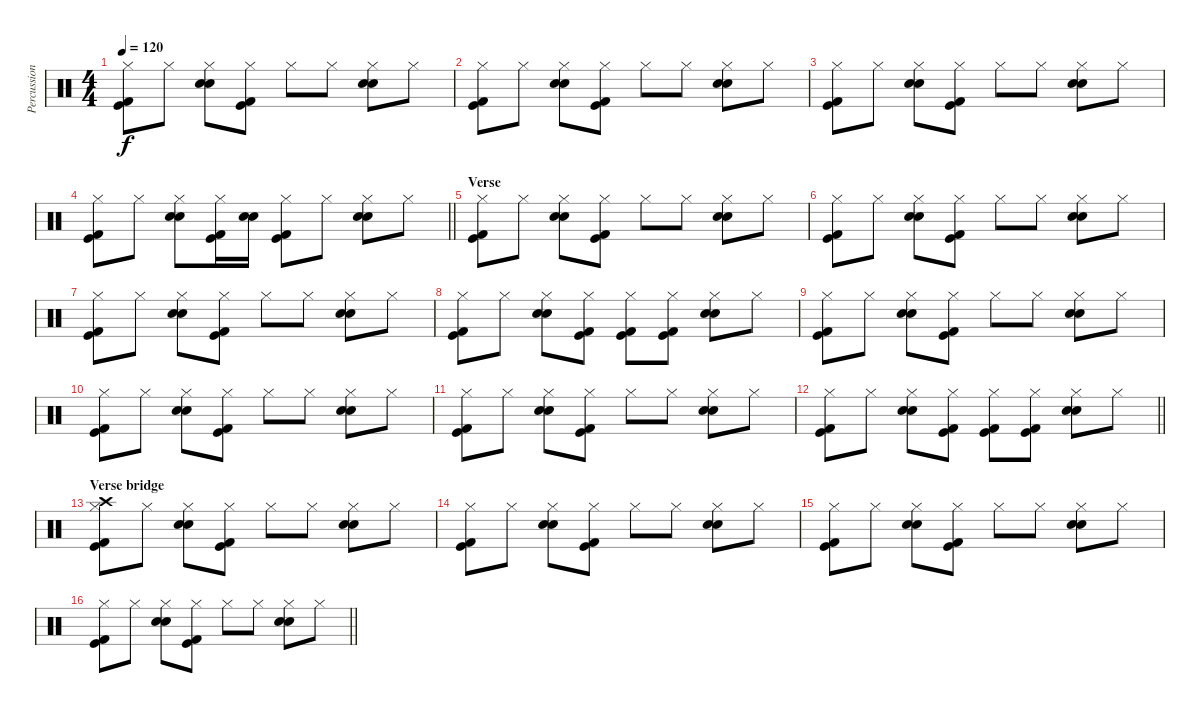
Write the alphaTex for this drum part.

\track ("Percussions" "Percussion") {instrument percussion}
\staff {score}
\articulation defaults
\ts (4 4)
\tempo 120
\clef neutral
\ks c
("Hi-Hat (closed)" "Kick (hit)" "Kick (hit) 2").8{dy f} "Hi-Hat (closed)".8 ("Hi-Hat (closed)" "Electric Snare (hit)" "Electric Snare (hit)").8 ("Hi-Hat (closed)" "Kick (hit)" "Kick (hit) 2").8 "Hi-Hat (closed)".8 "Hi-Hat (closed)".8 ("Hi-Hat (closed)" "Electric Snare (hit)" "Electric Snare (hit)").8 "Hi-Hat (closed)".8 |
("Hi-Hat (closed)" "Kick (hit)" "Kick (hit) 2").8 "Hi-Hat (closed)".8 ("Hi-Hat (closed)" "Electric Snare (hit)" "Electric Snare (hit)").8 ("Hi-Hat (closed)" "Kick (hit)" "Kick (hit) 2").8 "Hi-Hat (closed)".8 "Hi-Hat (closed)".8 ("Hi-Hat (closed)" "Electric Snare (hit)" "Electric Snare (hit)").8 "Hi-Hat (closed)".8 |
("Hi-Hat (closed)" "Kick (hit)" "Kick (hit) 2").8 "Hi-Hat (closed)".8 ("Hi-Hat (closed)" "Electric Snare (hit)" "Electric Snare (hit)").8 ("Hi-Hat (closed)" "Kick (hit)" "Kick (hit) 2").8 "Hi-Hat (closed)".8 "Hi-Hat (closed)".8 ("Hi-Hat (closed)" "Electric Snare (hit)" "Electric Snare (hit)").8 "Hi-Hat (closed)".8 |
\barLineRight lightlight
("Hi-Hat (closed)" "Kick (hit)" "Kick (hit) 2").8 "Hi-Hat (closed)".8 ("Hi-Hat (closed)" "Electric Snare (hit)" "Electric Snare (hit)").8 ("Hi-Hat (closed)" "Kick (hit)" "Kick (hit) 2").16 ("Electric Snare (hit)" "Electric Snare (hit)").16 ("Hi-Hat (closed)" "Kick (hit)" "Kick (hit) 2").8 "Hi-Hat (closed)".8 ("Hi-Hat (closed)" "Electric Snare (hit)" "Electric Snare (hit)").8 "Hi-Hat (closed)".8 |
\section ("" "Verse")
("Hi-Hat (closed)" "Kick (hit)" "Kick (hit) 2").8 "Hi-Hat (closed)".8 ("Hi-Hat (closed)" "Electric Snare (hit)" "Electric Snare (hit)").8 ("Hi-Hat (closed)" "Kick (hit)" "Kick (hit) 2").8 "Hi-Hat (closed)".8 "Hi-Hat (closed)".8 ("Hi-Hat (closed)" "Electric Snare (hit)" "Electric Snare (hit)").8 "Hi-Hat (closed)".8 |
("Hi-Hat (closed)" "Kick (hit)" "Kick (hit) 2").8 "Hi-Hat (closed)".8 ("Hi-Hat (closed)" "Electric Snare (hit)" "Electric Snare (hit)").8 ("Hi-Hat (closed)" "Kick (hit)" "Kick (hit) 2").8 "Hi-Hat (closed)".8 "Hi-Hat (closed)".8 ("Hi-Hat (closed)" "Electric Snare (hit)" "Electric Snare (hit)").8 "Hi-Hat (closed)".8 |
("Hi-Hat (closed)" "Kick (hit)" "Kick (hit) 2").8 "Hi-Hat (closed)".8 ("Hi-Hat (closed)" "Electric Snare (hit)" "Electric Snare (hit)").8 ("Hi-Hat (closed)" "Kick (hit)" "Kick (hit) 2").8 "Hi-Hat (closed)".8 "Hi-Hat (closed)".8 ("Hi-Hat (closed)" "Electric Snare (hit)" "Electric Snare (hit)").8 "Hi-Hat (closed)".8 |
("Hi-Hat (closed)" "Kick (hit)" "Kick (hit) 2").8 "Hi-Hat (closed)".8 ("Hi-Hat (closed)" "Electric Snare (hit)" "Electric Snare (hit)").8 ("Hi-Hat (closed)" "Kick (hit)" "Kick (hit) 2").8 ("Hi-Hat (closed)" "Kick (hit)" "Kick (hit) 2").8 ("Hi-Hat (closed)" "Kick (hit)" "Kick (hit) 2").8 ("Hi-Hat (closed)" "Electric Snare (hit)" "Electric Snare (hit)").8 "Hi-Hat (closed)".8 |
("Hi-Hat (closed)" "Kick (hit)" "Kick (hit) 2").8 "Hi-Hat (closed)".8 ("Hi-Hat (closed)" "Electric Snare (hit)" "Electric Snare (hit)").8 ("Hi-Hat (closed)" "Kick (hit)" "Kick (hit) 2").8 "Hi-Hat (closed)".8 "Hi-Hat (closed)".8 ("Hi-Hat (closed)" "Electric Snare (hit)" "Electric Snare (hit)").8 "Hi-Hat (closed)".8 |
("Hi-Hat (closed)" "Kick (hit)" "Kick (hit) 2").8 "Hi-Hat (closed)".8 ("Hi-Hat (closed)" "Electric Snare (hit)" "Electric Snare (hit)").8 ("Hi-Hat (closed)" "Kick (hit)" "Kick (hit) 2").8 "Hi-Hat (closed)".8 "Hi-Hat (closed)".8 ("Hi-Hat (closed)" "Electric Snare (hit)" "Electric Snare (hit)").8 "Hi-Hat (closed)".8 |
("Hi-Hat (closed)" "Kick (hit)" "Kick (hit) 2").8 "Hi-Hat (closed)".8 ("Hi-Hat (closed)" "Electric Snare (hit)" "Electric Snare (hit)").8 ("Hi-Hat (closed)" "Kick (hit)" "Kick (hit) 2").8 "Hi-Hat (closed)".8 "Hi-Hat (closed)".8 ("Hi-Hat (closed)" "Electric Snare (hit)" "Electric Snare (hit)").8 "Hi-Hat (closed)".8 |
\barLineRight lightlight
("Hi-Hat (closed)" "Kick (hit)" "Kick (hit) 2").8 "Hi-Hat (closed)".8 ("Hi-Hat (closed)" "Electric Snare (hit)" "Electric Snare (hit)").8 ("Hi-Hat (closed)" "Kick (hit)" "Kick (hit) 2").8 ("Hi-Hat (closed)" "Kick (hit)" "Kick (hit) 2").8 ("Hi-Hat (closed)" "Kick (hit)" "Kick (hit) 2").8 ("Hi-Hat (closed)" "Electric Snare (hit)" "Electric Snare (hit)").8 "Hi-Hat (closed)".8 |
\section ("" "Verse bridge")
("Crash high (hit)" "Hi-Hat (closed)" "Kick (hit)" "Kick (hit) 2").8 "Hi-Hat (closed)".8 ("Hi-Hat (closed)" "Electric Snare (hit)" "Electric Snare (hit)").8 ("Hi-Hat (closed)" "Kick (hit)" "Kick (hit) 2").8 "Hi-Hat (closed)".8 "Hi-Hat (closed)".8 ("Hi-Hat (closed)" "Electric Snare (hit)" "Electric Snare (hit)").8 "Hi-Hat (closed)".8 |
("Hi-Hat (closed)" "Kick (hit)" "Kick (hit) 2").8 "Hi-Hat (closed)".8 ("Hi-Hat (closed)" "Electric Snare (hit)" "Electric Snare (hit)").8 ("Hi-Hat (closed)" "Kick (hit)" "Kick (hit) 2").8 "Hi-Hat (closed)".8 "Hi-Hat (closed)".8 ("Hi-Hat (closed)" "Electric Snare (hit)" "Electric Snare (hit)").8 "Hi-Hat (closed)".8 |
("Hi-Hat (closed)" "Kick (hit)" "Kick (hit) 2").8 "Hi-Hat (closed)".8 ("Hi-Hat (closed)" "Electric Snare (hit)" "Electric Snare (hit)").8 ("Hi-Hat (closed)" "Kick (hit)" "Kick (hit) 2").8 "Hi-Hat (closed)".8 "Hi-Hat (closed)".8 ("Hi-Hat (closed)" "Electric Snare (hit)" "Electric Snare (hit)").8 "Hi-Hat (closed)".8 |
\barLineRight lightlight
("Hi-Hat (closed)" "Kick (hit)" "Kick (hit) 2").8 "Hi-Hat (closed)".8 ("Hi-Hat (closed)" "Electric Snare (hit)" "Electric Snare (hit)").8 ("Hi-Hat (closed)" "Kick (hit)" "Kick (hit) 2").8 "Hi-Hat (closed)".8 "Hi-Hat (closed)".8 ("Hi-Hat (closed)" "Electric Snare (hit)" "Electric Snare (hit)").8 "Hi-Hat (closed)".8
